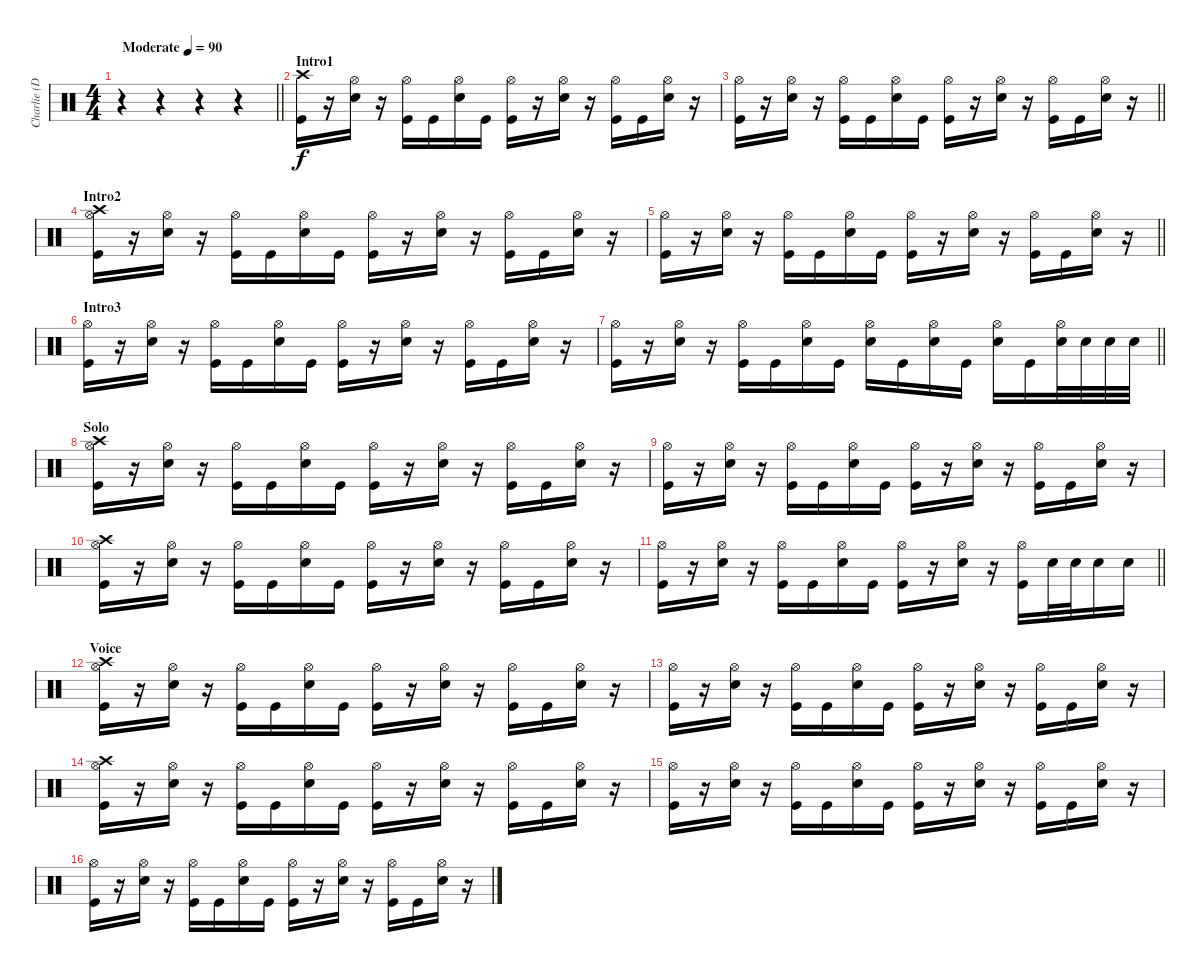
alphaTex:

\track ("Charlie (Drums)" "Charlie (D") {instrument percussion}
\staff {score}
\articulation defaults
\ts (4 4)
\tempo (90 "Moderate")
\clef neutral
\barLineRight lightlight
\ks c
r.4{dy f} r.4 r.4 r.4 |
\section ("" "Intro1")
("Crash high (hit)" "Kick (hit)").16 r.16 ("Hi-Hat (open)" "Electric Snare (hit)").16 r.16 ("Hi-Hat (open)" "Kick (hit)").16 "Kick (hit)".16 ("Hi-Hat (open)" "Electric Snare (hit)").16 "Kick (hit)".16 ("Hi-Hat (open)" "Kick (hit)").16 r.16 ("Hi-Hat (open)" "Electric Snare (hit)").16 r.16 ("Hi-Hat (open)" "Kick (hit)").16 "Kick (hit)".16 ("Hi-Hat (open)" "Electric Snare (hit)").16 r.16 |
\barLineRight lightlight
("Hi-Hat (open)" "Kick (hit)").16 r.16 ("Hi-Hat (open)" "Electric Snare (hit)").16 r.16 ("Hi-Hat (open)" "Kick (hit)").16 "Kick (hit)".16 ("Hi-Hat (open)" "Electric Snare (hit)").16 "Kick (hit)".16 ("Hi-Hat (open)" "Kick (hit)").16 r.16 ("Hi-Hat (open)" "Electric Snare (hit)").16 r.16 ("Hi-Hat (open)" "Kick (hit)").16 "Kick (hit)".16 ("Hi-Hat (open)" "Electric Snare (hit)").16 r.16 |
\section ("" "Intro2")
("Crash high (hit)" "Hi-Hat (open)" "Kick (hit)").16 r.16 ("Hi-Hat (open)" "Electric Snare (hit)").16 r.16 ("Hi-Hat (open)" "Kick (hit)").16 "Kick (hit)".16 ("Hi-Hat (open)" "Electric Snare (hit)").16 "Kick (hit)".16 ("Hi-Hat (open)" "Kick (hit)").16 r.16 ("Hi-Hat (open)" "Electric Snare (hit)").16 r.16 ("Hi-Hat (open)" "Kick (hit)").16 "Kick (hit)".16 ("Hi-Hat (open)" "Electric Snare (hit)").16 r.16 |
\barLineRight lightlight
("Hi-Hat (open)" "Kick (hit)").16 r.16 ("Hi-Hat (open)" "Electric Snare (hit)").16 r.16 ("Hi-Hat (open)" "Kick (hit)").16 "Kick (hit)".16 ("Hi-Hat (open)" "Electric Snare (hit)").16 "Kick (hit)".16 ("Hi-Hat (open)" "Kick (hit)").16 r.16 ("Hi-Hat (open)" "Electric Snare (hit)").16 r.16 ("Hi-Hat (open)" "Kick (hit)").16 "Kick (hit)".16 ("Hi-Hat (open)" "Electric Snare (hit)").16 r.16 |
\section ("" "Intro3")
("Hi-Hat (open)" "Kick (hit)").16 r.16 ("Hi-Hat (open)" "Electric Snare (hit)").16 r.16 ("Hi-Hat (open)" "Kick (hit)").16 "Kick (hit)".16 ("Hi-Hat (open)" "Electric Snare (hit)").16 "Kick (hit)".16 ("Hi-Hat (open)" "Kick (hit)").16 r.16 ("Hi-Hat (open)" "Electric Snare (hit)").16 r.16 ("Hi-Hat (open)" "Kick (hit)").16 "Kick (hit)".16 ("Hi-Hat (open)" "Electric Snare (hit)").16 r.16 |
\barLineRight lightlight
("Hi-Hat (open)" "Kick (hit)").16 r.16 ("Hi-Hat (open)" "Electric Snare (hit)").16 r.16 ("Hi-Hat (open)" "Kick (hit)").16 "Kick (hit)".16 ("Hi-Hat (open)" "Electric Snare (hit)").16 "Kick (hit)".16 ("Hi-Hat (open)" "Electric Snare (hit)").16 "Kick (hit)".16 ("Hi-Hat (open)" "Electric Snare (hit)").16 "Kick (hit)".16 ("Hi-Hat (open)" "Electric Snare (hit)").16 "Kick (hit)".16 ("Hi-Hat (open)" "Electric Snare (hit)").32 "Electric Snare (hit)".32 "Electric Snare (hit)".32 "Electric Snare (hit)".32 |
\section ("" "Solo")
("Crash high (hit)" "Hi-Hat (open)" "Kick (hit)").16 r.16 ("Hi-Hat (open)" "Electric Snare (hit)").16 r.16 ("Hi-Hat (open)" "Kick (hit)").16 "Kick (hit)".16 ("Hi-Hat (open)" "Electric Snare (hit)").16 "Kick (hit)".16 ("Hi-Hat (open)" "Kick (hit)").16 r.16 ("Hi-Hat (open)" "Electric Snare (hit)").16 r.16 ("Hi-Hat (open)" "Kick (hit)").16 "Kick (hit)".16 ("Hi-Hat (open)" "Electric Snare (hit)").16 r.16 |
("Hi-Hat (open)" "Kick (hit)").16 r.16 ("Hi-Hat (open)" "Electric Snare (hit)").16 r.16 ("Hi-Hat (open)" "Kick (hit)").16 "Kick (hit)".16 ("Hi-Hat (open)" "Electric Snare (hit)").16 "Kick (hit)".16 ("Hi-Hat (open)" "Kick (hit)").16 r.16 ("Hi-Hat (open)" "Electric Snare (hit)").16 r.16 ("Hi-Hat (open)" "Kick (hit)").16 "Kick (hit)".16 ("Hi-Hat (open)" "Electric Snare (hit)").16 r.16 |
("Crash high (hit)" "Hi-Hat (open)" "Kick (hit)").16 r.16 ("Hi-Hat (open)" "Electric Snare (hit)").16 r.16 ("Hi-Hat (open)" "Kick (hit)").16 "Kick (hit)".16 ("Hi-Hat (open)" "Electric Snare (hit)").16 "Kick (hit)".16 ("Hi-Hat (open)" "Kick (hit)").16 r.16 ("Hi-Hat (open)" "Electric Snare (hit)").16 r.16 ("Hi-Hat (open)" "Kick (hit)").16 "Kick (hit)".16 ("Hi-Hat (open)" "Electric Snare (hit)").16 r.16 |
\barLineRight lightlight
("Hi-Hat (open)" "Kick (hit)").16 r.16 ("Hi-Hat (open)" "Electric Snare (hit)").16 r.16 ("Hi-Hat (open)" "Kick (hit)").16 "Kick (hit)".16 ("Hi-Hat (open)" "Electric Snare (hit)").16 "Kick (hit)".16 ("Hi-Hat (open)" "Kick (hit)").16 r.16 ("Hi-Hat (open)" "Electric Snare (hit)").16 r.16 ("Hi-Hat (open)" "Kick (hit)").16 "Electric Snare (hit)".32 "Electric Snare (hit)".32 "Electric Snare (hit)".16 "Electric Snare (hit)".16 |
\section ("" "Voice")
("Crash high (hit)" "Hi-Hat (open)" "Kick (hit)").16 r.16 ("Hi-Hat (open)" "Electric Snare (hit)").16 r.16 ("Hi-Hat (open)" "Kick (hit)").16 "Kick (hit)".16 ("Hi-Hat (open)" "Electric Snare (hit)").16 "Kick (hit)".16 ("Hi-Hat (open)" "Kick (hit)").16 r.16 ("Hi-Hat (open)" "Electric Snare (hit)").16 r.16 ("Hi-Hat (open)" "Kick (hit)").16 "Kick (hit)".16 ("Hi-Hat (open)" "Electric Snare (hit)").16 r.16 |
("Hi-Hat (open)" "Kick (hit)").16 r.16 ("Hi-Hat (open)" "Electric Snare (hit)").16 r.16 ("Hi-Hat (open)" "Kick (hit)").16 "Kick (hit)".16 ("Hi-Hat (open)" "Electric Snare (hit)").16 "Kick (hit)".16 ("Hi-Hat (open)" "Kick (hit)").16 r.16 ("Hi-Hat (open)" "Electric Snare (hit)").16 r.16 ("Hi-Hat (open)" "Kick (hit)").16 "Kick (hit)".16 ("Hi-Hat (open)" "Electric Snare (hit)").16 r.16 |
("Crash high (hit)" "Hi-Hat (open)" "Kick (hit)").16 r.16 ("Hi-Hat (open)" "Electric Snare (hit)").16 r.16 ("Hi-Hat (open)" "Kick (hit)").16 "Kick (hit)".16 ("Hi-Hat (open)" "Electric Snare (hit)").16 "Kick (hit)".16 ("Hi-Hat (open)" "Kick (hit)").16 r.16 ("Hi-Hat (open)" "Electric Snare (hit)").16 r.16 ("Hi-Hat (open)" "Kick (hit)").16 "Kick (hit)".16 ("Hi-Hat (open)" "Electric Snare (hit)").16 r.16 |
("Hi-Hat (open)" "Kick (hit)").16 r.16 ("Hi-Hat (open)" "Electric Snare (hit)").16 r.16 ("Hi-Hat (open)" "Kick (hit)").16 "Kick (hit)".16 ("Hi-Hat (open)" "Electric Snare (hit)").16 "Kick (hit)".16 ("Hi-Hat (open)" "Kick (hit)").16 r.16 ("Hi-Hat (open)" "Electric Snare (hit)").16 r.16 ("Hi-Hat (open)" "Kick (hit)").16 "Kick (hit)".16 ("Hi-Hat (open)" "Electric Snare (hit)").16 r.16 |
("Hi-Hat (open)" "Kick (hit)").16 r.16 ("Hi-Hat (open)" "Electric Snare (hit)").16 r.16 ("Hi-Hat (open)" "Kick (hit)").16 "Kick (hit)".16 ("Hi-Hat (open)" "Electric Snare (hit)").16 "Kick (hit)".16 ("Hi-Hat (open)" "Kick (hit)").16 r.16 ("Hi-Hat (open)" "Electric Snare (hit)").16 r.16 ("Hi-Hat (open)" "Kick (hit)").16 "Kick (hit)".16 ("Hi-Hat (open)" "Electric Snare (hit)").16 r.16
